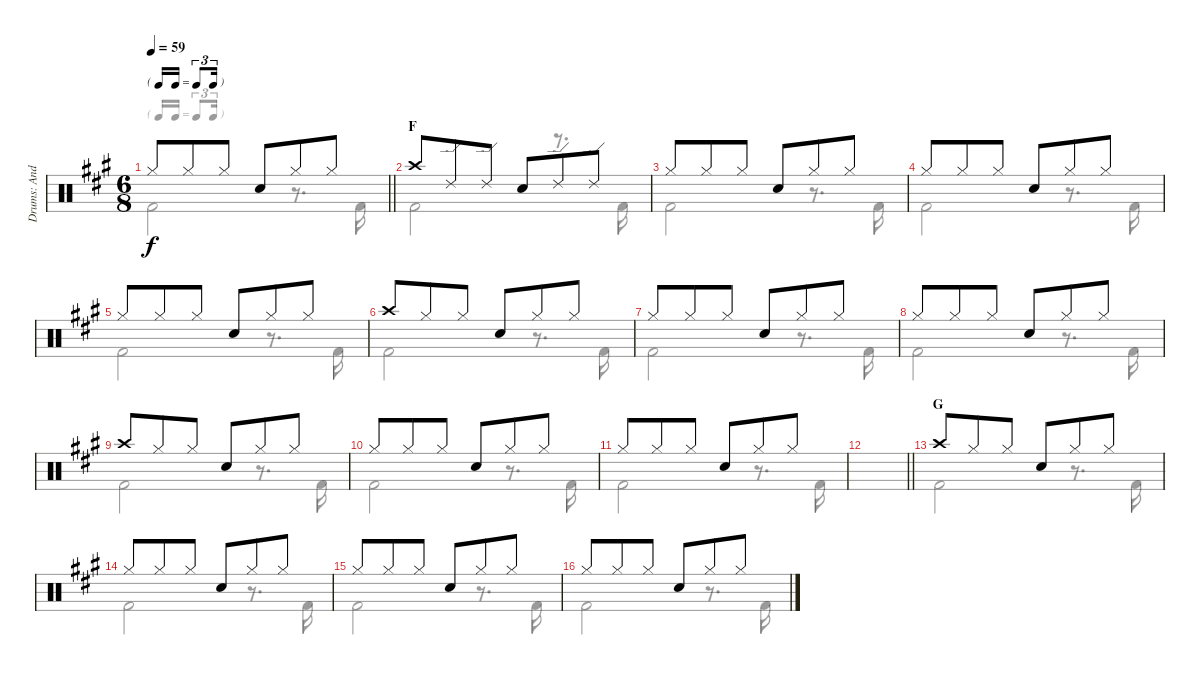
\track ("Drums: Andy Newmark" "Drums: And") {instrument percussion}
\staff {score}
\articulation defaults
\voice
\ts (6 8)
\tf triplet16th
\tempo 59
\clef neutral
\barLineRight lightlight
\ks a "Hi-Hat (closed)".8{dy f} "Hi-Hat (closed)".8 "Hi-Hat (closed)".8 "Snare (hit) 2".8 "Hi-Hat (closed)".8 "Hi-Hat (closed)".8
|
\section ("" "F")
"Crash high (hit)".8 "Ride (edge) 2".8 "Ride (edge) 2".8 "Snare (hit) 2".8 "Ride (edge) 2".8 "Ride (edge) 2".8 |
"Hi-Hat (closed)".8 "Hi-Hat (closed)".8 "Hi-Hat (closed)".8 "Snare (hit) 2".8 "Hi-Hat (closed)".8 "Hi-Hat (closed)".8 |
"Hi-Hat (closed)".8 "Hi-Hat (closed)".8 "Hi-Hat (closed)".8 "Snare (hit) 2".8 "Hi-Hat (closed)".8 "Hi-Hat (closed)".8 |
"Hi-Hat (closed)".8 "Hi-Hat (closed)".8 "Hi-Hat (closed)".8 "Snare (hit) 2".8 "Hi-Hat (closed)".8 "Hi-Hat (closed)".8 |
"Crash high (hit)".8 "Hi-Hat (closed)".8 "Hi-Hat (closed)".8 "Snare (hit) 2".8 "Hi-Hat (closed)".8 "Hi-Hat (closed)".8 |
"Hi-Hat (closed)".8 "Hi-Hat (closed)".8 "Hi-Hat (closed)".8 "Snare (hit) 2".8 "Hi-Hat (closed)".8 "Hi-Hat (closed)".8 |
"Hi-Hat (closed)".8 "Hi-Hat (closed)".8 "Hi-Hat (closed)".8 "Snare (hit) 2".8 "Hi-Hat (closed)".8 "Hi-Hat (closed)".8 |
"Crash high (hit)".8 "Hi-Hat (closed)".8 "Hi-Hat (closed)".8 "Snare (hit) 2".8 "Hi-Hat (closed)".8 "Hi-Hat (closed)".8 |
"Hi-Hat (closed)".8 "Hi-Hat (closed)".8 "Hi-Hat (closed)".8 "Snare (hit) 2".8 "Hi-Hat (closed)".8 "Hi-Hat (closed)".8 |
"Hi-Hat (closed)".8 "Hi-Hat (closed)".8 "Hi-Hat (closed)".8 "Snare (hit) 2".8 "Hi-Hat (closed)".8 "Hi-Hat (closed)".8 |
\barLineRight lightlight
|
\section ("" "G")
"Crash high (hit)".8 "Hi-Hat (closed)".8 "Hi-Hat (closed)".8 "Snare (hit) 2".8 "Hi-Hat (closed)".8 "Hi-Hat (closed)".8 |
"Hi-Hat (closed)".8 "Hi-Hat (closed)".8 "Hi-Hat (closed)".8 "Snare (hit) 2".8 "Hi-Hat (closed)".8 "Hi-Hat (closed)".8 |
"Hi-Hat (closed)".8 "Hi-Hat (closed)".8 "Hi-Hat (closed)".8 "Snare (hit) 2".8 "Hi-Hat (closed)".8 "Hi-Hat (closed)".8 |
"Hi-Hat (closed)".8 "Hi-Hat (closed)".8 "Hi-Hat (closed)".8 "Snare (hit) 2".8 "Hi-Hat (closed)".8 "Hi-Hat (closed)".8
\voice
\clef neutral
\ottava regular
\simile none
\barLineRight lightlight
\ks a "Kick (hit) 2".2{dy f}
r.8{d} "Kick (hit) 2".16 |
"Kick (hit) 2".2 r.8{d} "Kick (hit) 2".16 |
"Kick (hit) 2".2 r.8{d} "Kick (hit) 2".16 |
"Kick (hit) 2".2 r.8{d} "Kick (hit) 2".16 |
"Kick (hit) 2".2 r.8{d} "Kick (hit) 2".16 |
"Kick (hit) 2".2 r.8{d} "Kick (hit) 2".16 |
"Kick (hit) 2".2 r.8{d} "Kick (hit) 2".16 |
"Kick (hit) 2".2 r.8{d} "Kick (hit) 2".16 |
"Kick (hit) 2".2 r.8{d} "Kick (hit) 2".16 |
"Kick (hit) 2".2 r.8{d} "Kick (hit) 2".16 |
"Kick (hit) 2".2 r.8{d} "Kick (hit) 2".16 |
\barLineRight lightlight
|
"Kick (hit) 2".2 r.8{d} "Kick (hit) 2".16 |
"Kick (hit) 2".2 r.8{d} "Kick (hit) 2".16 |
"Kick (hit) 2".2 r.8{d} "Kick (hit) 2".16 |
"Kick (hit) 2".2 r.8{d} "Kick (hit) 2".16
